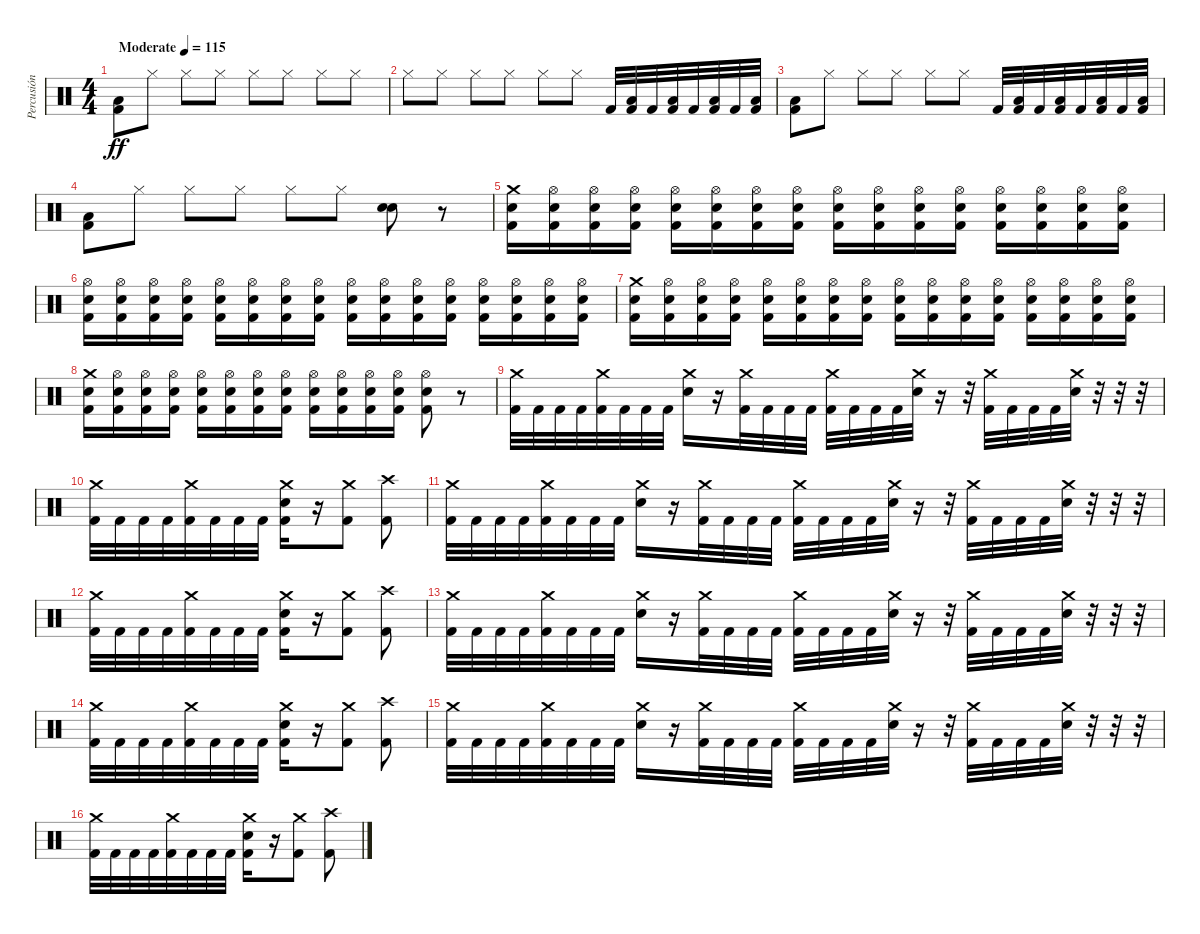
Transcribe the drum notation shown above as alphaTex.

\track ("Percusión" "Percusión") {instrument percussion}
\staff {score}
\articulation defaults
\ts (4 4)
\tempo (115 "Moderate")
\clef neutral
\ks c
("Low Floor Tom (hit)" "Kick (hit) 2").8{dy ff} "Hi-Hat (closed)".8 "Hi-Hat (closed)".8 "Hi-Hat (closed)".8 "Hi-Hat (closed)".8 "Hi-Hat (closed)".8 "Hi-Hat (closed)".8 "Hi-Hat (closed)".8 |
"Hi-Hat (closed)".8 "Hi-Hat (closed)".8 "Hi-Hat (closed)".8 "Hi-Hat (closed)".8 "Hi-Hat (closed)".8 "Hi-Hat (closed)".8 "Kick (hit) 2".32 ("Low Floor Tom (hit)" "Kick (hit) 2").32 "Kick (hit) 2".32 ("Low Floor Tom (hit)" "Kick (hit) 2").32 "Kick (hit) 2".32 ("Low Floor Tom (hit)" "Kick (hit) 2").32 "Kick (hit) 2".32 ("Low Floor Tom (hit)" "Kick (hit) 2").32 |
("Low Floor Tom (hit)" "Kick (hit) 2").8 "Hi-Hat (closed)".8 "Hi-Hat (closed)".8 "Hi-Hat (closed)".8 "Hi-Hat (closed)".8 "Hi-Hat (closed)".8 "Kick (hit) 2".32 ("Low Floor Tom (hit)" "Kick (hit) 2").32 "Kick (hit) 2".32 ("Low Floor Tom (hit)" "Kick (hit) 2").32 "Kick (hit) 2".32 ("Low Floor Tom (hit)" "Kick (hit) 2").32 "Kick (hit) 2".32 ("Low Floor Tom (hit)" "Kick (hit) 2").32 |
("Low Floor Tom (hit)" "Kick (hit) 2").8 "Hi-Hat (closed)".8 "Hi-Hat (closed)".8 "Hi-Hat (closed)".8 "Hi-Hat (closed)".8 "Hi-Hat (closed)".8 ("Snare (hit) 2" "Electric Snare (hit)").8 r.8 |
("Crash medium (hit)" "Electric Snare (hit)" "Kick (hit) 2").16 ("Hi-Hat (open)" "Electric Snare (hit)" "Kick (hit) 2").16 ("Hi-Hat (open)" "Electric Snare (hit)" "Kick (hit) 2").16 ("Hi-Hat (open)" "Electric Snare (hit)" "Kick (hit) 2").16 ("Hi-Hat (open)" "Electric Snare (hit)" "Kick (hit) 2").16 ("Hi-Hat (open)" "Electric Snare (hit)" "Kick (hit) 2").16 ("Hi-Hat (open)" "Electric Snare (hit)" "Kick (hit) 2").16 ("Hi-Hat (open)" "Electric Snare (hit)" "Kick (hit) 2").16 ("Hi-Hat (open)" "Electric Snare (hit)" "Kick (hit) 2").16 ("Hi-Hat (open)" "Electric Snare (hit)" "Kick (hit) 2").16 ("Hi-Hat (open)" "Electric Snare (hit)" "Kick (hit) 2").16 ("Hi-Hat (open)" "Electric Snare (hit)" "Kick (hit) 2").16 ("Hi-Hat (open)" "Electric Snare (hit)" "Kick (hit) 2").16 ("Hi-Hat (open)" "Electric Snare (hit)" "Kick (hit) 2").16 ("Hi-Hat (open)" "Electric Snare (hit)" "Kick (hit) 2").16 ("Hi-Hat (open)" "Electric Snare (hit)" "Kick (hit) 2").16 |
("Hi-Hat (open)" "Electric Snare (hit)" "Kick (hit) 2").16 ("Hi-Hat (open)" "Electric Snare (hit)" "Kick (hit) 2").16 ("Hi-Hat (open)" "Electric Snare (hit)" "Kick (hit) 2").16 ("Hi-Hat (open)" "Electric Snare (hit)" "Kick (hit) 2").16 ("Hi-Hat (open)" "Electric Snare (hit)" "Kick (hit) 2").16 ("Hi-Hat (open)" "Electric Snare (hit)" "Kick (hit) 2").16 ("Hi-Hat (open)" "Electric Snare (hit)" "Kick (hit) 2").16 ("Hi-Hat (open)" "Electric Snare (hit)" "Kick (hit) 2").16 ("Hi-Hat (open)" "Electric Snare (hit)" "Kick (hit) 2").16 ("Hi-Hat (open)" "Electric Snare (hit)" "Kick (hit) 2").16 ("Hi-Hat (open)" "Electric Snare (hit)" "Kick (hit) 2").16 ("Hi-Hat (open)" "Electric Snare (hit)" "Kick (hit) 2").16 ("Hi-Hat (open)" "Electric Snare (hit)" "Kick (hit) 2").16 ("Hi-Hat (open)" "Electric Snare (hit)" "Kick (hit) 2").16 ("Hi-Hat (open)" "Electric Snare (hit)" "Kick (hit) 2").16 ("Hi-Hat (open)" "Electric Snare (hit)" "Kick (hit) 2").16 |
("Crash medium (hit)" "Electric Snare (hit)" "Kick (hit) 2").16 ("Hi-Hat (open)" "Electric Snare (hit)" "Kick (hit) 2").16 ("Hi-Hat (open)" "Electric Snare (hit)" "Kick (hit) 2").16 ("Hi-Hat (open)" "Electric Snare (hit)" "Kick (hit) 2").16 ("Hi-Hat (open)" "Electric Snare (hit)" "Kick (hit) 2").16 ("Hi-Hat (open)" "Electric Snare (hit)" "Kick (hit) 2").16 ("Hi-Hat (open)" "Electric Snare (hit)" "Kick (hit) 2").16 ("Hi-Hat (open)" "Electric Snare (hit)" "Kick (hit) 2").16 ("Hi-Hat (open)" "Electric Snare (hit)" "Kick (hit) 2").16 ("Hi-Hat (open)" "Electric Snare (hit)" "Kick (hit) 2").16 ("Hi-Hat (open)" "Electric Snare (hit)" "Kick (hit) 2").16 ("Hi-Hat (open)" "Electric Snare (hit)" "Kick (hit) 2").16 ("Hi-Hat (open)" "Electric Snare (hit)" "Kick (hit) 2").16 ("Hi-Hat (open)" "Electric Snare (hit)" "Kick (hit) 2").16 ("Hi-Hat (open)" "Electric Snare (hit)" "Kick (hit) 2").16 ("Hi-Hat (open)" "Electric Snare (hit)" "Kick (hit) 2").16 |
("Crash medium (hit)" "Electric Snare (hit)" "Kick (hit) 2").16 ("Hi-Hat (open)" "Electric Snare (hit)" "Kick (hit) 2").16 ("Hi-Hat (open)" "Electric Snare (hit)" "Kick (hit) 2").16 ("Hi-Hat (open)" "Electric Snare (hit)" "Kick (hit) 2").16 ("Hi-Hat (open)" "Electric Snare (hit)" "Kick (hit) 2").16 ("Hi-Hat (open)" "Electric Snare (hit)" "Kick (hit) 2").16 ("Hi-Hat (open)" "Electric Snare (hit)" "Kick (hit) 2").16 ("Hi-Hat (open)" "Electric Snare (hit)" "Kick (hit) 2").16 ("Hi-Hat (open)" "Electric Snare (hit)" "Kick (hit) 2").16 ("Hi-Hat (open)" "Electric Snare (hit)" "Kick (hit) 2").16 ("Hi-Hat (open)" "Electric Snare (hit)" "Kick (hit) 2").16 ("Hi-Hat (open)" "Electric Snare (hit)" "Kick (hit) 2").16 ("Hi-Hat (open)" "Electric Snare (hit)" "Kick (hit) 2").8 r.8 |
("Crash medium (hit)" "Kick (hit) 2").32 "Kick (hit) 2".32 "Kick (hit) 2".32 "Kick (hit) 2".32 ("Crash medium (hit)" "Kick (hit) 2").32 "Kick (hit) 2".32 "Kick (hit) 2".32 "Kick (hit) 2".32 ("Crash medium (hit)" "Electric Snare (hit)").16 r.16 ("Crash medium (hit)" "Kick (hit) 2").32 "Kick (hit) 2".32 "Kick (hit) 2".32 "Kick (hit) 2".32 ("Crash medium (hit)" "Kick (hit) 2").32 "Kick (hit) 2".32 "Kick (hit) 2".32 "Kick (hit) 2".32 ("Crash medium (hit)" "Electric Snare (hit)").32 r.16 r.32 ("Crash medium (hit)" "Kick (hit) 2").32 "Kick (hit) 2".32 "Kick (hit) 2".32 "Kick (hit) 2".32 ("Crash medium (hit)" "Electric Snare (hit)").32 r.32 r.32 r.32 |
("Crash medium (hit)" "Kick (hit) 2").32 "Kick (hit) 2".32 "Kick (hit) 2".32 "Kick (hit) 2".32 ("Crash medium (hit)" "Kick (hit) 2").32 "Kick (hit) 2".32 "Kick (hit) 2".32 "Kick (hit) 2".32 ("Crash medium (hit)" "Electric Snare (hit)" "Kick (hit) 2").16 r.16 ("Crash medium (hit)" "Kick (hit) 2").8 ("Crash high (hit)" "Kick (hit) 2").8 |
("Crash medium (hit)" "Kick (hit) 2").32 "Kick (hit) 2".32 "Kick (hit) 2".32 "Kick (hit) 2".32 ("Crash medium (hit)" "Kick (hit) 2").32 "Kick (hit) 2".32 "Kick (hit) 2".32 "Kick (hit) 2".32 ("Crash medium (hit)" "Electric Snare (hit)").16 r.16 ("Crash medium (hit)" "Kick (hit) 2").32 "Kick (hit) 2".32 "Kick (hit) 2".32 "Kick (hit) 2".32 ("Crash medium (hit)" "Kick (hit) 2").32 "Kick (hit) 2".32 "Kick (hit) 2".32 "Kick (hit) 2".32 ("Crash medium (hit)" "Electric Snare (hit)").32 r.16 r.32 ("Crash medium (hit)" "Kick (hit) 2").32 "Kick (hit) 2".32 "Kick (hit) 2".32 "Kick (hit) 2".32 ("Crash medium (hit)" "Electric Snare (hit)").32 r.32 r.32 r.32 |
("Crash medium (hit)" "Kick (hit) 2").32 "Kick (hit) 2".32 "Kick (hit) 2".32 "Kick (hit) 2".32 ("Crash medium (hit)" "Kick (hit) 2").32 "Kick (hit) 2".32 "Kick (hit) 2".32 "Kick (hit) 2".32 ("Crash medium (hit)" "Electric Snare (hit)" "Kick (hit) 2").16 r.16 ("Crash medium (hit)" "Kick (hit) 2").8 ("Crash high (hit)" "Kick (hit) 2").8 |
("Crash medium (hit)" "Kick (hit) 2").32 "Kick (hit) 2".32 "Kick (hit) 2".32 "Kick (hit) 2".32 ("Crash medium (hit)" "Kick (hit) 2").32 "Kick (hit) 2".32 "Kick (hit) 2".32 "Kick (hit) 2".32 ("Crash medium (hit)" "Electric Snare (hit)").16 r.16 ("Crash medium (hit)" "Kick (hit) 2").32 "Kick (hit) 2".32 "Kick (hit) 2".32 "Kick (hit) 2".32 ("Crash medium (hit)" "Kick (hit) 2").32 "Kick (hit) 2".32 "Kick (hit) 2".32 "Kick (hit) 2".32 ("Crash medium (hit)" "Electric Snare (hit)").32 r.16 r.32 ("Crash medium (hit)" "Kick (hit) 2").32 "Kick (hit) 2".32 "Kick (hit) 2".32 "Kick (hit) 2".32 ("Crash medium (hit)" "Electric Snare (hit)").32 r.32 r.32 r.32 |
("Crash medium (hit)" "Kick (hit) 2").32 "Kick (hit) 2".32 "Kick (hit) 2".32 "Kick (hit) 2".32 ("Crash medium (hit)" "Kick (hit) 2").32 "Kick (hit) 2".32 "Kick (hit) 2".32 "Kick (hit) 2".32 ("Crash medium (hit)" "Electric Snare (hit)" "Kick (hit) 2").16 r.16 ("Crash medium (hit)" "Kick (hit) 2").8 ("Crash high (hit)" "Kick (hit) 2").8 |
("Crash medium (hit)" "Kick (hit) 2").32 "Kick (hit) 2".32 "Kick (hit) 2".32 "Kick (hit) 2".32 ("Crash medium (hit)" "Kick (hit) 2").32 "Kick (hit) 2".32 "Kick (hit) 2".32 "Kick (hit) 2".32 ("Crash medium (hit)" "Electric Snare (hit)").16 r.16 ("Crash medium (hit)" "Kick (hit) 2").32 "Kick (hit) 2".32 "Kick (hit) 2".32 "Kick (hit) 2".32 ("Crash medium (hit)" "Kick (hit) 2").32 "Kick (hit) 2".32 "Kick (hit) 2".32 "Kick (hit) 2".32 ("Crash medium (hit)" "Electric Snare (hit)").32 r.16 r.32 ("Crash medium (hit)" "Kick (hit) 2").32 "Kick (hit) 2".32 "Kick (hit) 2".32 "Kick (hit) 2".32 ("Crash medium (hit)" "Electric Snare (hit)").32 r.32 r.32 r.32 |
("Crash medium (hit)" "Kick (hit) 2").32 "Kick (hit) 2".32 "Kick (hit) 2".32 "Kick (hit) 2".32 ("Crash medium (hit)" "Kick (hit) 2").32 "Kick (hit) 2".32 "Kick (hit) 2".32 "Kick (hit) 2".32 ("Crash medium (hit)" "Electric Snare (hit)" "Kick (hit) 2").16 r.16 ("Crash medium (hit)" "Kick (hit) 2").8 ("Crash high (hit)" "Kick (hit) 2").8
